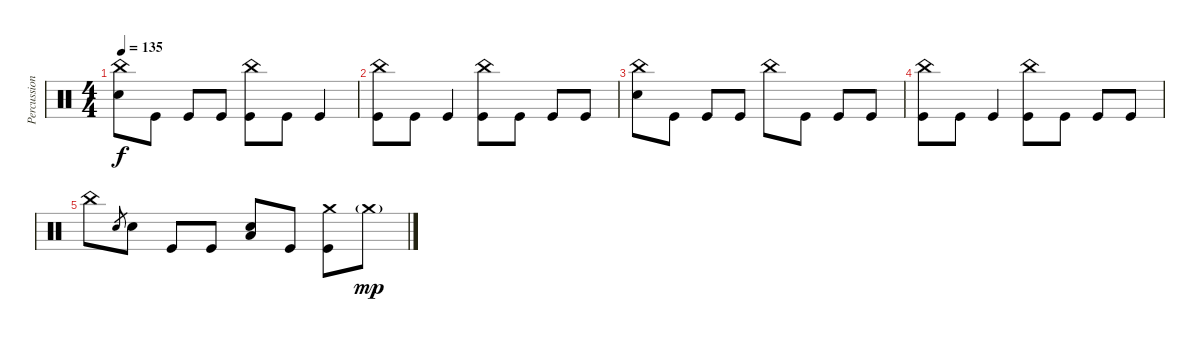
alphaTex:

\track ("Percussion" "Percussion") {instrument percussion}
\staff {score}
\articulation defaults
\ts (4 4)
\tempo 135
\clef neutral
\ks c
("China (hit)" "Snare (hit) 2").8{dy f} "Kick (hit)".8 "Kick (hit)".8 "Kick (hit)".8 ("China (hit)" "Kick (hit)").8 "Kick (hit)".8 "Kick (hit)".4 |
("China (hit)" "Kick (hit)").8 "Kick (hit)".8 "Kick (hit)".4 ("China (hit)" "Kick (hit)").8 "Kick (hit)".8 "Kick (hit)".8 "Kick (hit)".8 |
("China (hit)" "Snare (hit) 2").8 "Kick (hit)".8 "Kick (hit)".8 "Kick (hit)".8 "China (hit)".8 "Kick (hit)".8 "Kick (hit)".8 "Kick (hit)".8 |
("China (hit)" "Kick (hit)").8 "Kick (hit)".8 "Kick (hit)".4 ("China (hit)" "Kick (hit)").8 "Kick (hit)".8 "Kick (hit)".8 "Kick (hit)".8 |
"China (hit)".8 "Snare (hit) 2".8{gr} "Snare (hit) 2".8 "Kick (hit)".8 "Kick (hit)".8 ("Low Tom (hit)" "Snare (hit) 2").8 "Kick (hit)".8 ("Crash medium (hit)" "Kick (hit)").8 "Crash medium (hit)"{g}.8{dy mp}
